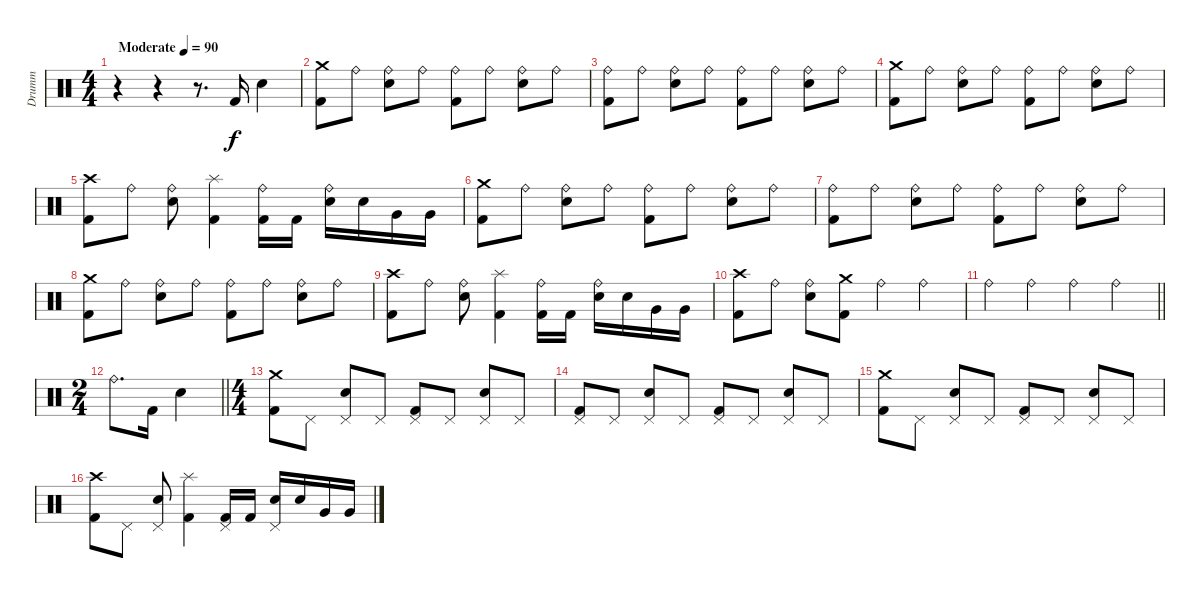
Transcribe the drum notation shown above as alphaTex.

\track ("Drumm" "Drumm") {instrument percussion}
\staff {score}
\articulation defaults
\ts (4 4)
\tempo (90 "Moderate")
\clef neutral
\ks c
r.4{dy f} r.4 r.8{d} "Kick (hit) 2".16 "Snare (hit) 2".4 |
("Crash medium (hit)" "Kick (hit) 2").8 "Ride (bell)".8 ("Ride (bell)" "Snare (hit) 2").8 "Ride (bell)".8 ("Ride (bell)" "Kick (hit) 2").8 "Ride (bell)".8 ("Ride (bell)" "Snare (hit) 2").8 "Ride (bell)".8 |
("Ride (bell)" "Kick (hit) 2").8 "Ride (bell)".8 ("Ride (bell)" "Snare (hit) 2").8 "Ride (bell)".8 ("Ride (bell)" "Kick (hit) 2").8 "Ride (bell)".8 ("Ride (bell)" "Snare (hit) 2").8 "Ride (bell)".8 |
("Crash medium (hit)" "Kick (hit) 2").8 "Ride (bell)".8 ("Ride (bell)" "Snare (hit) 2").8 "Ride (bell)".8 ("Ride (bell)" "Kick (hit) 2").8 "Ride (bell)".8 ("Ride (bell)" "Snare (hit) 2").8 "Ride (bell)".8 |
("Crash high (hit)" "Kick (hit) 2").8 "Ride (bell)".8 ("Ride (bell)" "Snare (hit) 2").8 ("Splash (hit)" "Kick (hit) 2").4 ("Ride (bell)" "Kick (hit) 2").16 "Kick (hit) 2".16 ("Ride (bell)" "Snare (hit) 2").16 "Snare (hit) 2".16 "Very Low Tom (hit)".16 "Very Low Tom (hit)".16 |
("Crash medium (hit)" "Kick (hit) 2").8 "Ride (bell)".8 ("Ride (bell)" "Snare (hit) 2").8 "Ride (bell)".8 ("Ride (bell)" "Kick (hit) 2").8 "Ride (bell)".8 ("Ride (bell)" "Snare (hit) 2").8 "Ride (bell)".8 |
("Ride (bell)" "Kick (hit) 2").8 "Ride (bell)".8 ("Ride (bell)" "Snare (hit) 2").8 "Ride (bell)".8 ("Ride (bell)" "Kick (hit) 2").8 "Ride (bell)".8 ("Ride (bell)" "Snare (hit) 2").8 "Ride (bell)".8 |
("Crash medium (hit)" "Kick (hit) 2").8 "Ride (bell)".8 ("Ride (bell)" "Snare (hit) 2").8 "Ride (bell)".8 ("Ride (bell)" "Kick (hit) 2").8 "Ride (bell)".8 ("Ride (bell)" "Snare (hit) 2").8 "Ride (bell)".8 |
("Crash high (hit)" "Kick (hit) 2").8 "Ride (bell)".8 ("Ride (bell)" "Snare (hit) 2").8 ("Splash (hit)" "Kick (hit) 2").4 ("Ride (bell)" "Kick (hit) 2").16 "Kick (hit) 2".16 ("Ride (bell)" "Snare (hit) 2").16 "Snare (hit) 2".16 "Very Low Tom (hit)".16 "Very Low Tom (hit)".16 |
("Crash high (hit)" "Kick (hit) 2").8 "Ride (bell)".8 ("Ride (bell)" "Snare (hit) 2").8 ("Crash medium (hit)" "Kick (hit) 2").8 "Ride (bell)".4 "Ride (bell)".4 |
\barLineRight lightlight "Ride (bell)".4 "Ride (bell)".4 "Ride (bell)".4 "Ride (bell)".4
|
\ts (2 4)
\barLineRight lightlight "Ride (bell)".8{d} "Kick (hit) 2".16 "Snare (hit) 2".4
|
\ts (4 4)
("Crash medium (hit)" "Kick (hit) 2").8 "Pedal Hi-Hat (hit)".8 ("Pedal Hi-Hat (hit)" "Snare (hit) 2").8 "Pedal Hi-Hat (hit)".8 ("Pedal Hi-Hat (hit)" "Kick (hit) 2").8 "Pedal Hi-Hat (hit)".8 ("Pedal Hi-Hat (hit)" "Snare (hit) 2").8 "Pedal Hi-Hat (hit)".8 |
("Pedal Hi-Hat (hit)" "Kick (hit) 2").8 "Pedal Hi-Hat (hit)".8 ("Pedal Hi-Hat (hit)" "Snare (hit) 2").8 "Pedal Hi-Hat (hit)".8 ("Pedal Hi-Hat (hit)" "Kick (hit) 2").8 "Pedal Hi-Hat (hit)".8 ("Pedal Hi-Hat (hit)" "Snare (hit) 2").8 "Pedal Hi-Hat (hit)".8 |
("Crash medium (hit)" "Kick (hit) 2").8 "Pedal Hi-Hat (hit)".8 ("Pedal Hi-Hat (hit)" "Snare (hit) 2").8 "Pedal Hi-Hat (hit)".8 ("Pedal Hi-Hat (hit)" "Kick (hit) 2").8 "Pedal Hi-Hat (hit)".8 ("Pedal Hi-Hat (hit)" "Snare (hit) 2").8 "Pedal Hi-Hat (hit)".8 |
("Crash high (hit)" "Kick (hit) 2").8 "Pedal Hi-Hat (hit)".8 ("Pedal Hi-Hat (hit)" "Snare (hit) 2").8 ("Splash (hit)" "Kick (hit) 2").4 ("Pedal Hi-Hat (hit)" "Kick (hit) 2").16 "Kick (hit) 2".16 ("Pedal Hi-Hat (hit)" "Snare (hit) 2").16 "Snare (hit) 2".16 "Very Low Tom (hit)".16 "Very Low Tom (hit)".16
